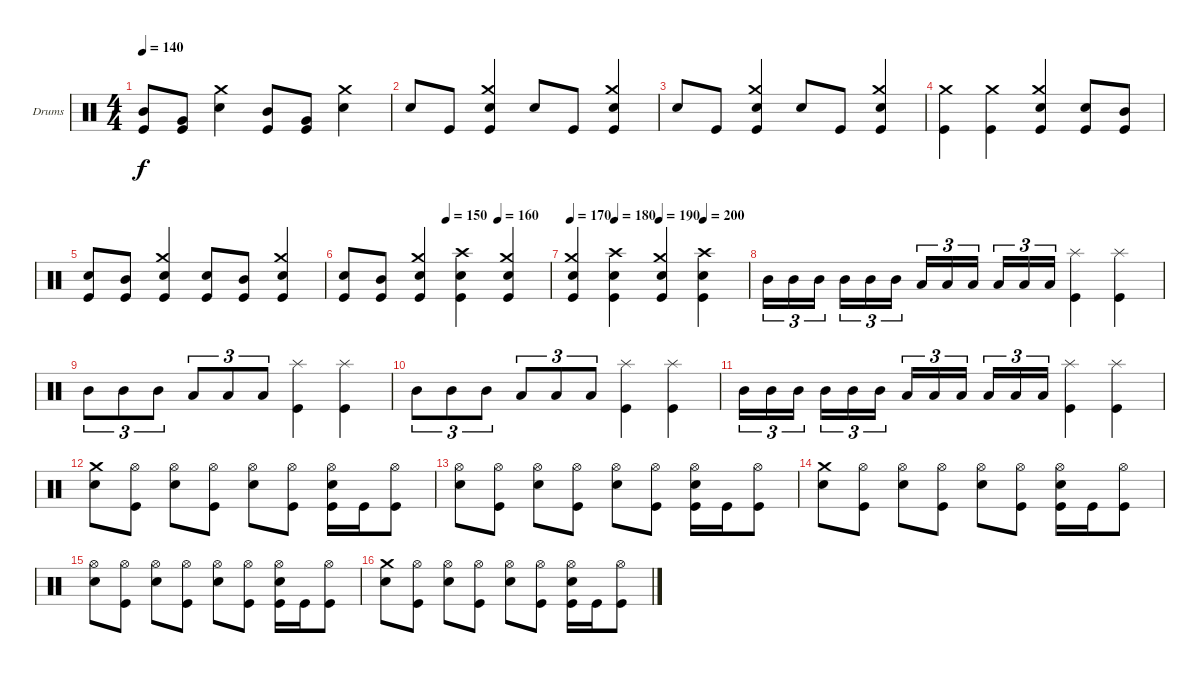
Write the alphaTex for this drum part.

\bracketExtendMode groupsimilarinstruments
\firstSystemTrackNameOrientation horizontal
\otherSystemsTrackNameOrientation horizontal
\track ("Ударные" "Drums") {instrument percussion}
\staff {score}
\articulation defaults
\ts (4 4)
\tempo 140
\clef neutral
\ks c
("Mid Tom (hit)" "Kick (hit)").8{dy f} ("Very Low Tom (hit)" "Kick (hit)").8 ("Crash medium (hit)" "Snare (hit) 2").4 ("Mid Tom (hit)" "Kick (hit)").8 ("Very Low Tom (hit)" "Kick (hit)").8 ("Crash medium (hit)" "Snare (hit) 2").4 |
"Snare (hit) 2".8 "Kick (hit)".8 ("Crash medium (hit)" "Snare (hit) 2" "Kick (hit)").4 "Snare (hit) 2".8 "Kick (hit)".8 ("Crash medium (hit)" "Snare (hit) 2" "Kick (hit)").4 |
"Snare (hit) 2".8 "Kick (hit)".8 ("Crash medium (hit)" "Snare (hit) 2" "Kick (hit)").4 "Snare (hit) 2".8 "Kick (hit)".8 ("Crash medium (hit)" "Snare (hit) 2" "Kick (hit)").4 |
("Crash medium (hit)" "Kick (hit)").4 ("Crash medium (hit)" "Kick (hit)").4 ("Crash medium (hit)" "Snare (hit) 2" "Kick (hit)").4 ("Snare (hit) 2" "Kick (hit)").8 ("Mid Tom (hit)" "Kick (hit)").8 |
("Snare (hit) 2" "Kick (hit)").8 ("Mid Tom (hit)" "Kick (hit)").8 ("Crash medium (hit)" "Snare (hit) 2" "Kick (hit)").4 ("Snare (hit) 2" "Kick (hit)").8 ("Mid Tom (hit)" "Kick (hit)").8 ("Crash medium (hit)" "Snare (hit) 2" "Kick (hit)").4 |
\tempo (150 0.5)
\tempo (160 0.75)
("Snare (hit) 2" "Kick (hit)").8 ("Mid Tom (hit)" "Kick (hit)").8 ("Crash medium (hit)" "Snare (hit) 2" "Kick (hit)").4 ("Crash high (hit)" "Snare (hit) 2" "Kick (hit)").4 ("Crash medium (hit)" "Snare (hit) 2" "Kick (hit)").4 |
\tempo 170
\tempo (180 0.25)
\tempo (190 0.5)
\tempo (200 0.75)
("Crash medium (hit)" "Snare (hit) 2" "Kick (hit)").4 ("Crash high (hit)" "Snare (hit) 2" "Kick (hit)").4 ("Crash medium (hit)" "Snare (hit) 2" "Kick (hit)").4 ("Crash high (hit)" "Snare (hit) 2" "Kick (hit)").4 |
"Mid Tom (hit)".16{tu (3 2)} "Mid Tom (hit)".16{tu (3 2)} "Mid Tom (hit)".16{tu (3 2)} "Mid Tom (hit)".16{tu (3 2)} "Mid Tom (hit)".16{tu (3 2)} "Mid Tom (hit)".16{tu (3 2)} "Low Tom (hit)".16{tu (3 2)} "Low Tom (hit)".16{tu (3 2)} "Low Tom (hit)".16{tu (3 2)} "Low Tom (hit)".16{tu (3 2)} "Low Tom (hit)".16{tu (3 2)} "Low Tom (hit)".16{tu (3 2)} ("Splash (hit)" "Kick (hit)").4 ("Splash (hit)" "Kick (hit)").4 |
"Mid Tom (hit)".8{tu (3 2)} "Mid Tom (hit)".8{tu (3 2)} "Mid Tom (hit)".8{tu (3 2)} "Low Tom (hit)".8{tu (3 2)} "Low Tom (hit)".8{tu (3 2)} "Low Tom (hit)".8{tu (3 2)} ("Splash (hit)" "Kick (hit)").4 ("Splash (hit)" "Kick (hit)").4 |
"Mid Tom (hit)".8{tu (3 2)} "Mid Tom (hit)".8{tu (3 2)} "Mid Tom (hit)".8{tu (3 2)} "Low Tom (hit)".8{tu (3 2)} "Low Tom (hit)".8{tu (3 2)} "Low Tom (hit)".8{tu (3 2)} ("Splash (hit)" "Kick (hit)").4 ("Splash (hit)" "Kick (hit)").4 |
"Mid Tom (hit)".16{tu (3 2)} "Mid Tom (hit)".16{tu (3 2)} "Mid Tom (hit)".16{tu (3 2)} "Mid Tom (hit)".16{tu (3 2)} "Mid Tom (hit)".16{tu (3 2)} "Mid Tom (hit)".16{tu (3 2)} "Low Tom (hit)".16{tu (3 2)} "Low Tom (hit)".16{tu (3 2)} "Low Tom (hit)".16{tu (3 2)} "Low Tom (hit)".16{tu (3 2)} "Low Tom (hit)".16{tu (3 2)} "Low Tom (hit)".16{tu (3 2)} ("Splash (hit)" "Kick (hit)").4 ("Splash (hit)" "Kick (hit)").4 |
("Crash medium (hit)" "Snare (hit) 2").8 ("Hi-Hat (open)" "Kick (hit)").8 ("Hi-Hat (open)" "Snare (hit) 2").8 ("Hi-Hat (open)" "Kick (hit)").8 ("Hi-Hat (open)" "Snare (hit) 2").8 ("Hi-Hat (open)" "Kick (hit)").8 ("Hi-Hat (open)" "Snare (hit) 2" "Kick (hit)").16 "Kick (hit)".16 ("Hi-Hat (open)" "Kick (hit)").8 |
("Hi-Hat (open)" "Snare (hit) 2").8 ("Hi-Hat (open)" "Kick (hit)").8 ("Hi-Hat (open)" "Snare (hit) 2").8 ("Hi-Hat (open)" "Kick (hit)").8 ("Hi-Hat (open)" "Snare (hit) 2").8 ("Hi-Hat (open)" "Kick (hit)").8 ("Hi-Hat (open)" "Snare (hit) 2" "Kick (hit)").16 "Kick (hit)".16 ("Hi-Hat (open)" "Kick (hit)").8 |
("Crash medium (hit)" "Snare (hit) 2").8 ("Hi-Hat (open)" "Kick (hit)").8 ("Hi-Hat (open)" "Snare (hit) 2").8 ("Hi-Hat (open)" "Kick (hit)").8 ("Hi-Hat (open)" "Snare (hit) 2").8 ("Hi-Hat (open)" "Kick (hit)").8 ("Hi-Hat (open)" "Snare (hit) 2" "Kick (hit)").16 "Kick (hit)".16 ("Hi-Hat (open)" "Kick (hit)").8 |
("Hi-Hat (open)" "Snare (hit) 2").8 ("Hi-Hat (open)" "Kick (hit)").8 ("Hi-Hat (open)" "Snare (hit) 2").8 ("Hi-Hat (open)" "Kick (hit)").8 ("Hi-Hat (open)" "Snare (hit) 2").8 ("Hi-Hat (open)" "Kick (hit)").8 ("Hi-Hat (open)" "Snare (hit) 2" "Kick (hit)").16 "Kick (hit)".16 ("Hi-Hat (open)" "Kick (hit)").8 |
("Crash medium (hit)" "Snare (hit) 2").8 ("Hi-Hat (open)" "Kick (hit)").8 ("Hi-Hat (open)" "Snare (hit) 2").8 ("Hi-Hat (open)" "Kick (hit)").8 ("Hi-Hat (open)" "Snare (hit) 2").8 ("Hi-Hat (open)" "Kick (hit)").8 ("Hi-Hat (open)" "Snare (hit) 2" "Kick (hit)").16 "Kick (hit)".16 ("Hi-Hat (open)" "Kick (hit)").8
